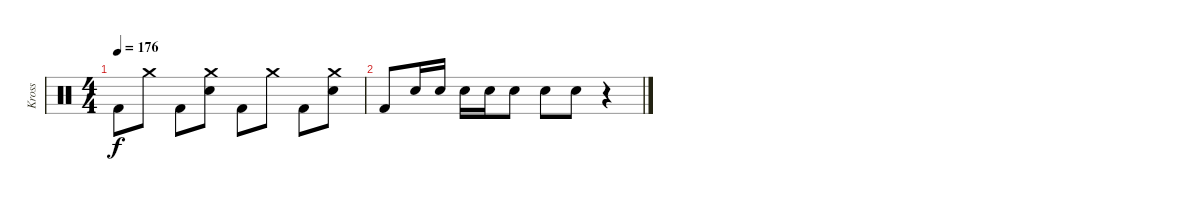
\track ("Kross" "Kross") {instrument percussion}
\staff {score}
\articulation defaults
\ts (4 4)
\tempo 176
\clef neutral
\ks c "Kick (hit) 2".8{dy f} "Crash medium (hit)".8 "Kick (hit) 2".8
("Crash medium (hit)" "Electric Snare (hit)").8 "Kick (hit) 2".8 "Crash medium (hit)".8 "Kick (hit) 2".8 ("Crash medium (hit)" "Electric Snare (hit)").8 |
"Kick (hit) 2".8 "Electric Snare (hit)".16 "Electric Snare (hit)".16 "Electric Snare (hit)".16 "Electric Snare (hit)".16 "Electric Snare (hit)".8 "Electric Snare (hit)".8 "Electric Snare (hit)".8 r.4
